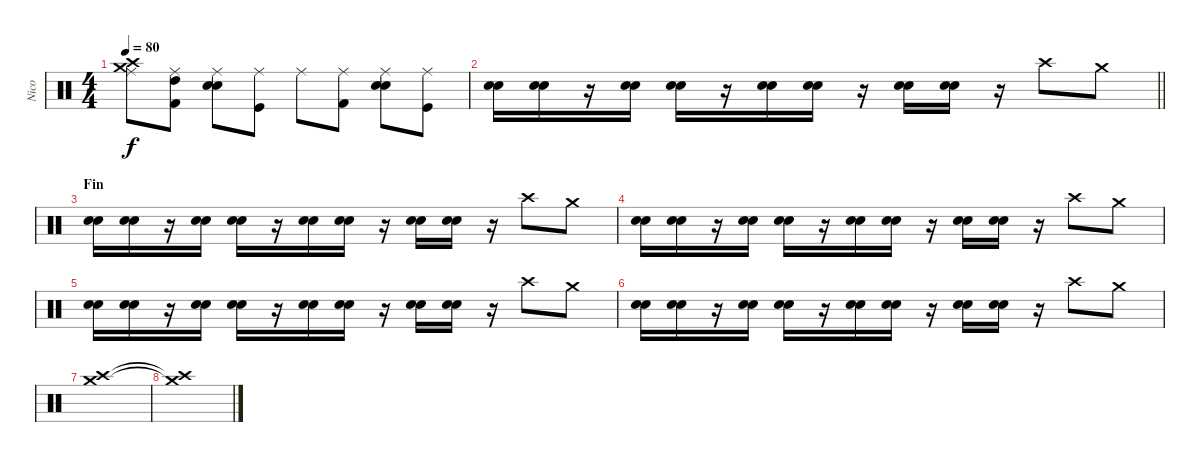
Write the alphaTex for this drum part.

\track ("Nico" "Nico") {instrument percussion}
\staff {score}
\articulation defaults
\ts (4 4)
\tempo 80
\clef neutral
\ks c
("Ride (middle)" "Crash high (hit)" "Crash medium (hit)").8{dy f volume 13} ("Ride (middle)" "High Tom (hit)" "Kick (hit) 2").8 ("Ride (middle)" "Electric Snare (hit)" "Snare (hit) 2").8 ("Ride (middle)" "Kick (hit)").8 "Ride (middle)".8 ("Ride (middle)" "Kick (hit) 2").8 ("Ride (middle)" "Snare (hit) 2" "Electric Snare (hit)").8 ("Ride (middle)" "Kick (hit)").8 |
\barLineRight lightlight
("Snare (hit) 2" "Electric Snare (hit)").16 ("Snare (hit) 2" "Electric Snare (hit)").16 r.16 ("Snare (hit) 2" "Electric Snare (hit)").16 ("Snare (hit) 2" "Electric Snare (hit)").16 r.16 ("Snare (hit) 2" "Electric Snare (hit)").16 ("Snare (hit) 2" "Electric Snare (hit)").16 r.16 ("Snare (hit) 2" "Electric Snare (hit)").16 ("Snare (hit) 2" "Electric Snare (hit)").16 r.16 "Crash high (hit)".8 "Crash medium (hit)".8 |
\section ("" "Fin")
("Snare (hit) 2" "Electric Snare (hit)").16 ("Snare (hit) 2" "Electric Snare (hit)").16 r.16 ("Snare (hit) 2" "Electric Snare (hit)").16 ("Snare (hit) 2" "Electric Snare (hit)").16 r.16 ("Snare (hit) 2" "Electric Snare (hit)").16 ("Snare (hit) 2" "Electric Snare (hit)").16 r.16 ("Snare (hit) 2" "Electric Snare (hit)").16 ("Snare (hit) 2" "Electric Snare (hit)").16 r.16 "Crash high (hit)".8 "Crash medium (hit)".8 |
("Snare (hit) 2" "Electric Snare (hit)").16 ("Snare (hit) 2" "Electric Snare (hit)").16 r.16 ("Snare (hit) 2" "Electric Snare (hit)").16 ("Snare (hit) 2" "Electric Snare (hit)").16 r.16 ("Snare (hit) 2" "Electric Snare (hit)").16 ("Snare (hit) 2" "Electric Snare (hit)").16 r.16 ("Snare (hit) 2" "Electric Snare (hit)").16 ("Snare (hit) 2" "Electric Snare (hit)").16 r.16 "Crash high (hit)".8 "Crash medium (hit)".8 |
("Snare (hit) 2" "Electric Snare (hit)").16 ("Snare (hit) 2" "Electric Snare (hit)").16 r.16 ("Snare (hit) 2" "Electric Snare (hit)").16 ("Snare (hit) 2" "Electric Snare (hit)").16 r.16 ("Snare (hit) 2" "Electric Snare (hit)").16 ("Snare (hit) 2" "Electric Snare (hit)").16 r.16 ("Snare (hit) 2" "Electric Snare (hit)").16 ("Snare (hit) 2" "Electric Snare (hit)").16 r.16 "Crash high (hit)".8 "Crash medium (hit)".8 |
("Snare (hit) 2" "Electric Snare (hit)").16 ("Snare (hit) 2" "Electric Snare (hit)").16 r.16 ("Snare (hit) 2" "Electric Snare (hit)").16 ("Snare (hit) 2" "Electric Snare (hit)").16 r.16 ("Snare (hit) 2" "Electric Snare (hit)").16 ("Snare (hit) 2" "Electric Snare (hit)").16 r.16 ("Snare (hit) 2" "Electric Snare (hit)").16 ("Snare (hit) 2" "Electric Snare (hit)").16 r.16 "Crash high (hit)".8 "Crash medium (hit)".8 |
("Crash high (hit)" "Crash medium (hit)").1 |
("Crash high (hit)"{t} "Crash medium (hit)"{t}).1
